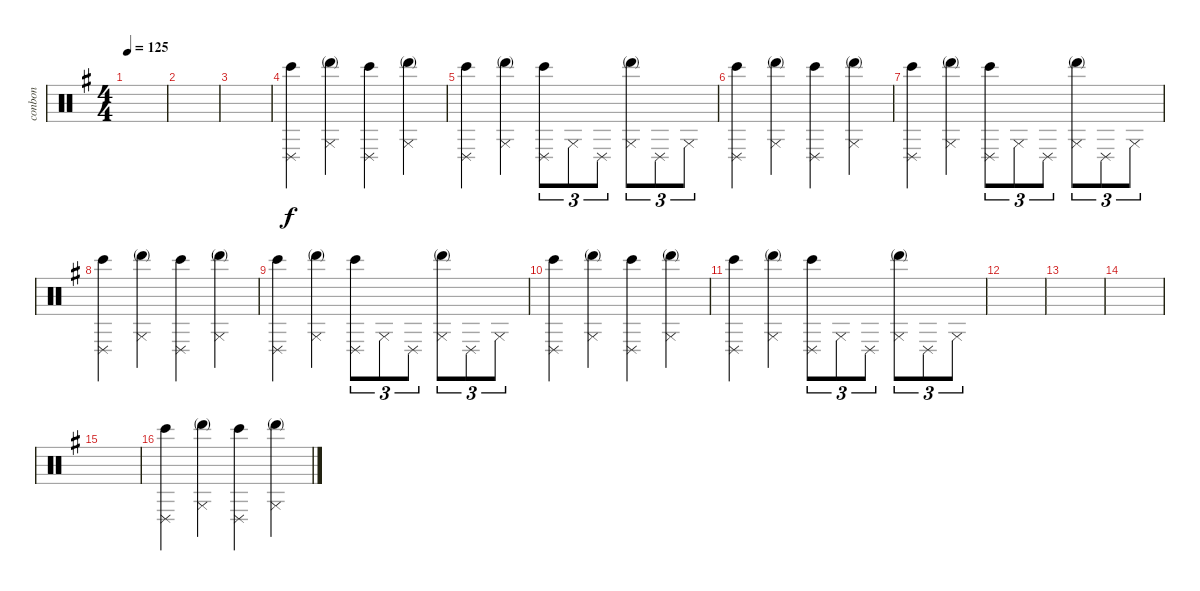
\defaultSystemsLayout 4
\bracketExtendMode groupsimilarinstruments
\otherSystemsTrackNameOrientation horizontal
\track ("Bongos N Congas" "conbon") {instrument percussion}
\staff {score}
\articulation defaults
\ts (4 4)
\tempo 125
\clef neutral
\scale
0.333333
\ks g
|
\scale
0.333333 |
\scale
0.333333 |
\scale
0.333333 ("Conga low (slap)"{acc forcenatural} "Bongo High (hit)"{acc forcenatural}).4{beam Down} ("Conga high (slap)"{acc forcenatural} "Hand (mute)"{acc forcenatural}).4{beam Down} ("Conga low (slap)"{acc forcenatural} "Bongo High (hit)"{acc forcenatural}).4{beam Down} ("Conga high (slap)"{acc forcenatural} "Hand (mute)"{acc forcenatural}).4{beam Down} |
\scale
0.333333 ("Conga low (slap)"{acc forcenatural} "Bongo High (hit)"{acc forcenatural}).4{beam Down} ("Conga high (slap)"{acc forcenatural} "Hand (mute)"{acc forcenatural}).4{beam Down} ("Conga low (slap)"{acc forcenatural} "Bongo High (hit)"{acc forcenatural}).8{tu (3 2) beam Down} "Conga high (slap)"{acc forcenatural}.8{tu (3 2) beam Down} "Conga low (slap)"{acc forcenatural}.8{tu (3 2) beam Down} ("Conga high (slap)"{acc forcenatural} "Hand (mute)"{acc forcenatural}).8{tu (3 2) beam Down} "Conga low (slap)"{acc forcenatural}.8{tu (3 2) beam Down} "Conga high (slap)"{acc forcenatural}.8{tu (3 2) beam Down} |
\scale
0.333333 ("Conga low (slap)"{acc forcenatural} "Bongo High (hit)"{acc forcenatural}).4{beam Down} ("Conga high (slap)"{acc forcenatural} "Hand (mute)"{acc forcenatural}).4{beam Down} ("Conga low (slap)"{acc forcenatural} "Bongo High (hit)"{acc forcenatural}).4{beam Down} ("Conga high (slap)"{acc forcenatural} "Hand (mute)"{acc forcenatural}).4{beam Down} |
\scale
0.333333 ("Conga low (slap)"{acc forcenatural} "Bongo High (hit)"{acc forcenatural}).4{beam Down} ("Conga high (slap)"{acc forcenatural} "Hand (mute)"{acc forcenatural}).4{beam Down} ("Conga low (slap)"{acc forcenatural} "Bongo High (hit)"{acc forcenatural}).8{tu (3 2) beam Down} "Conga high (slap)"{acc forcenatural}.8{tu (3 2) beam Down} "Conga low (slap)"{acc forcenatural}.8{tu (3 2) beam Down} ("Conga high (slap)"{acc forcenatural} "Hand (mute)"{acc forcenatural}).8{tu (3 2) beam Down} "Conga low (slap)"{acc forcenatural}.8{tu (3 2) beam Down} "Conga high (slap)"{acc forcenatural}.8{tu (3 2) beam Down} |
\scale
0.333333 ("Conga low (slap)"{acc forcenatural} "Bongo High (hit)"{acc forcenatural}).4{beam Down} ("Conga high (slap)"{acc forcenatural} "Hand (mute)"{acc forcenatural}).4{beam Down} ("Conga low (slap)"{acc forcenatural} "Bongo High (hit)"{acc forcenatural}).4{beam Down} ("Conga high (slap)"{acc forcenatural} "Hand (mute)"{acc forcenatural}).4{beam Down} |
\scale
0.333333 ("Conga low (slap)"{acc forcenatural} "Bongo High (hit)"{acc forcenatural}).4{beam Down} ("Conga high (slap)"{acc forcenatural} "Hand (mute)"{acc forcenatural}).4{beam Down} ("Conga low (slap)"{acc forcenatural} "Bongo High (hit)"{acc forcenatural}).8{tu (3 2) beam Down} "Conga high (slap)"{acc forcenatural}.8{tu (3 2) beam Down} "Conga low (slap)"{acc forcenatural}.8{tu (3 2) beam Down} ("Conga high (slap)"{acc forcenatural} "Hand (mute)"{acc forcenatural}).8{tu (3 2) beam Down} "Conga low (slap)"{acc forcenatural}.8{tu (3 2) beam Down} "Conga high (slap)"{acc forcenatural}.8{tu (3 2) beam Down} |
\scale
0.333333 ("Conga low (slap)"{acc forcenatural} "Bongo High (hit)"{acc forcenatural}).4{beam Down} ("Conga high (slap)"{acc forcenatural} "Hand (mute)"{acc forcenatural}).4{beam Down} ("Conga low (slap)"{acc forcenatural} "Bongo High (hit)"{acc forcenatural}).4{beam Down} ("Conga high (slap)"{acc forcenatural} "Hand (mute)"{acc forcenatural}).4{beam Down} |
\scale
0.333333 ("Conga low (slap)"{acc forcenatural} "Bongo High (hit)"{acc forcenatural}).4{beam Down} ("Conga high (slap)"{acc forcenatural} "Hand (mute)"{acc forcenatural}).4{beam Down} ("Conga low (slap)"{acc forcenatural} "Bongo High (hit)"{acc forcenatural}).8{tu (3 2) beam Down} "Conga high (slap)"{acc forcenatural}.8{tu (3 2) beam Down} "Conga low (slap)"{acc forcenatural}.8{tu (3 2) beam Down} ("Conga high (slap)"{acc forcenatural} "Hand (mute)"{acc forcenatural}).8{tu (3 2) beam Down} "Conga low (slap)"{acc forcenatural}.8{tu (3 2) beam Down} "Conga high (slap)"{acc forcenatural}.8{tu (3 2) beam Down} |
\scale
0.333333 |
\scale
0.333333 |
\scale
0.333333 |
\scale
0.333333 |
\scale
0.333333 ("Conga low (slap)"{acc forcenatural} "Bongo High (hit)"{acc forcenatural}).4{beam Down} ("Conga high (slap)"{acc forcenatural} "Hand (mute)"{acc forcenatural}).4{beam Down} ("Conga low (slap)"{acc forcenatural} "Bongo High (hit)"{acc forcenatural}).4{beam Down} ("Conga high (slap)"{acc forcenatural} "Hand (mute)"{acc forcenatural}).4{beam Down}
